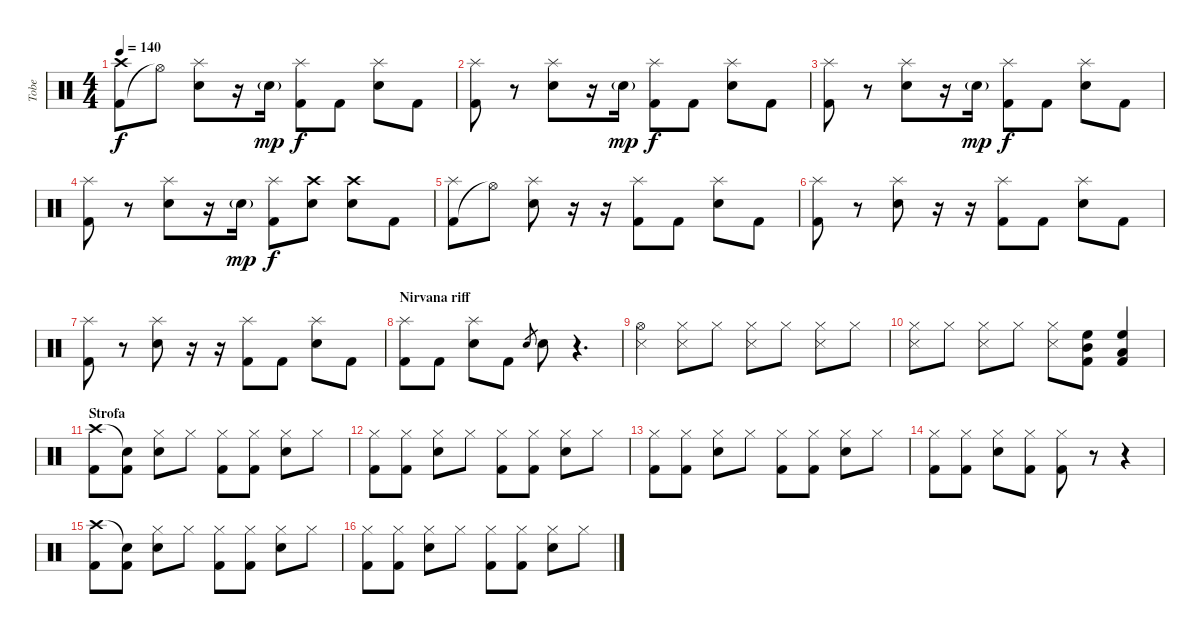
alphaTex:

\track ("Tobe" "Tobe") {instrument percussion}
\staff {score}
\articulation defaults
\ts (4 4)
\tempo 140
\clef neutral
\ks c
("Kick (hit) 2" "Crash high (hit)").8{dy f} "Hi-Hat (open)"{t}.8 ("Electric Snare (hit)" "Splash (hit)").8 r.16 "Electric Snare (hit)"{g}.16{dy mp} ("Kick (hit) 2" "Splash (hit)").8{dy f} "Kick (hit) 2".8 ("Electric Snare (hit)" "Splash (hit)").8 "Kick (hit) 2".8 |
("Kick (hit) 2" "Splash (hit)").8 r.8 ("Electric Snare (hit)" "Splash (hit)").8 r.16 "Electric Snare (hit)"{g}.16{dy mp} ("Kick (hit) 2" "Splash (hit)").8{dy f} "Kick (hit) 2".8 ("Electric Snare (hit)" "Splash (hit)").8 "Kick (hit) 2".8 |
("Kick (hit) 2" "Splash (hit)").8 r.8 ("Electric Snare (hit)" "Splash (hit)").8 r.16 "Electric Snare (hit)"{g}.16{dy mp} ("Kick (hit) 2" "Splash (hit)").8{dy f} "Kick (hit) 2".8 ("Electric Snare (hit)" "Splash (hit)").8 "Kick (hit) 2".8 |
("Kick (hit) 2" "Splash (hit)").8 r.8 ("Electric Snare (hit)" "Splash (hit)").8 r.16 "Electric Snare (hit)"{g}.16{dy mp} ("Kick (hit) 2" "Splash (hit)").8{dy f} ("Electric Snare (hit)" "Crash high (hit)").8 ("Electric Snare (hit)" "Crash high (hit)").8 "Kick (hit) 2".8 |
("Kick (hit) 2" "Splash (hit)").8 "Hi-Hat (open)"{t}.8 ("Electric Snare (hit)" "Splash (hit)").8 r.16 r.16 ("Kick (hit) 2" "Splash (hit)").8 "Kick (hit) 2".8 ("Electric Snare (hit)" "Splash (hit)").8 "Kick (hit) 2".8 |
("Kick (hit) 2" "Splash (hit)").8 r.8 ("Electric Snare (hit)" "Splash (hit)").8 r.16 r.16 ("Kick (hit) 2" "Splash (hit)").8 "Kick (hit) 2".8 ("Electric Snare (hit)" "Splash (hit)").8 "Kick (hit) 2".8 |
("Kick (hit) 2" "Splash (hit)").8 r.8 ("Electric Snare (hit)" "Splash (hit)").8 r.16 r.16 ("Kick (hit) 2" "Splash (hit)").8 "Kick (hit) 2".8 ("Electric Snare (hit)" "Splash (hit)").8 "Kick (hit) 2".8 |
\section ("" "Nirvana riff")
("Kick (hit) 2" "Splash (hit)").8 "Kick (hit) 2".8 ("Electric Snare (hit)" "Splash (hit)").8 "Kick (hit) 2".8 "Electric Snare (hit)".8{gr} "Electric Snare (hit)".8 r.4{d} |
("Snare (side stick) 3" "Hi-Hat (open)").4 ("Snare (side stick) 3" "Hi-Hat (closed)").8 "Hi-Hat (closed)".8 ("Snare (side stick) 3" "Hi-Hat (closed)").8 "Hi-Hat (closed)".8 ("Snare (side stick) 3" "Hi-Hat (closed)").8 "Hi-Hat (closed)".8 |
("Snare (side stick) 3" "Hi-Hat (closed)").8 "Hi-Hat (closed)".8 ("Snare (side stick) 3" "Hi-Hat (closed)").8 "Hi-Hat (closed)".8 ("Snare (side stick) 3" "Hi-Hat (closed)").8 ("Kick (hit) 2" "High Floor Tom (hit)" "Mid Tom (hit)").8 ("Kick (hit) 2" "Low Floor Tom (hit)" "High Floor Tom (hit)").4 |
\section ("" "Strofa")
("Kick (hit) 2" "Crash high (hit)").8 ("Kick (hit) 2" "Snare (hit)"{t}).8 ("Electric Snare (hit)" "Hi-Hat (closed)").8 "Hi-Hat (closed)".8 ("Kick (hit) 2" "Hi-Hat (closed)").8 ("Kick (hit) 2" "Hi-Hat (closed)").8 ("Electric Snare (hit)" "Hi-Hat (closed)").8 "Hi-Hat (closed)".8 |
("Kick (hit) 2" "Hi-Hat (closed)").8 ("Kick (hit) 2" "Hi-Hat (closed)").8 ("Electric Snare (hit)" "Hi-Hat (closed)").8 "Hi-Hat (closed)".8 ("Kick (hit) 2" "Hi-Hat (closed)").8 ("Kick (hit) 2" "Hi-Hat (closed)").8 ("Electric Snare (hit)" "Hi-Hat (closed)").8 "Hi-Hat (closed)".8 |
("Kick (hit) 2" "Hi-Hat (closed)").8 ("Kick (hit) 2" "Hi-Hat (closed)").8 ("Electric Snare (hit)" "Hi-Hat (closed)").8 "Hi-Hat (closed)".8 ("Kick (hit) 2" "Hi-Hat (closed)").8 ("Kick (hit) 2" "Hi-Hat (closed)").8 ("Electric Snare (hit)" "Hi-Hat (closed)").8 "Hi-Hat (closed)".8 |
("Kick (hit) 2" "Hi-Hat (closed)").8 ("Kick (hit) 2" "Hi-Hat (closed)").8 ("Electric Snare (hit)" "Hi-Hat (closed)").8 ("Kick (hit) 2" "Hi-Hat (closed)").8 ("Kick (hit) 2" "Hi-Hat (closed)").8 r.8 r.4 |
("Kick (hit) 2" "Crash high (hit)").8 ("Kick (hit) 2" "Snare (hit)"{t}).8 ("Electric Snare (hit)" "Hi-Hat (closed)").8 "Hi-Hat (closed)".8 ("Kick (hit) 2" "Hi-Hat (closed)").8 ("Kick (hit) 2" "Hi-Hat (closed)").8 ("Electric Snare (hit)" "Hi-Hat (closed)").8 "Hi-Hat (closed)".8 |
("Kick (hit) 2" "Hi-Hat (closed)").8 ("Kick (hit) 2" "Hi-Hat (closed)").8 ("Electric Snare (hit)" "Hi-Hat (closed)").8 "Hi-Hat (closed)".8 ("Kick (hit) 2" "Hi-Hat (closed)").8 ("Kick (hit) 2" "Hi-Hat (closed)").8 ("Electric Snare (hit)" "Hi-Hat (closed)").8 "Hi-Hat (closed)".8
